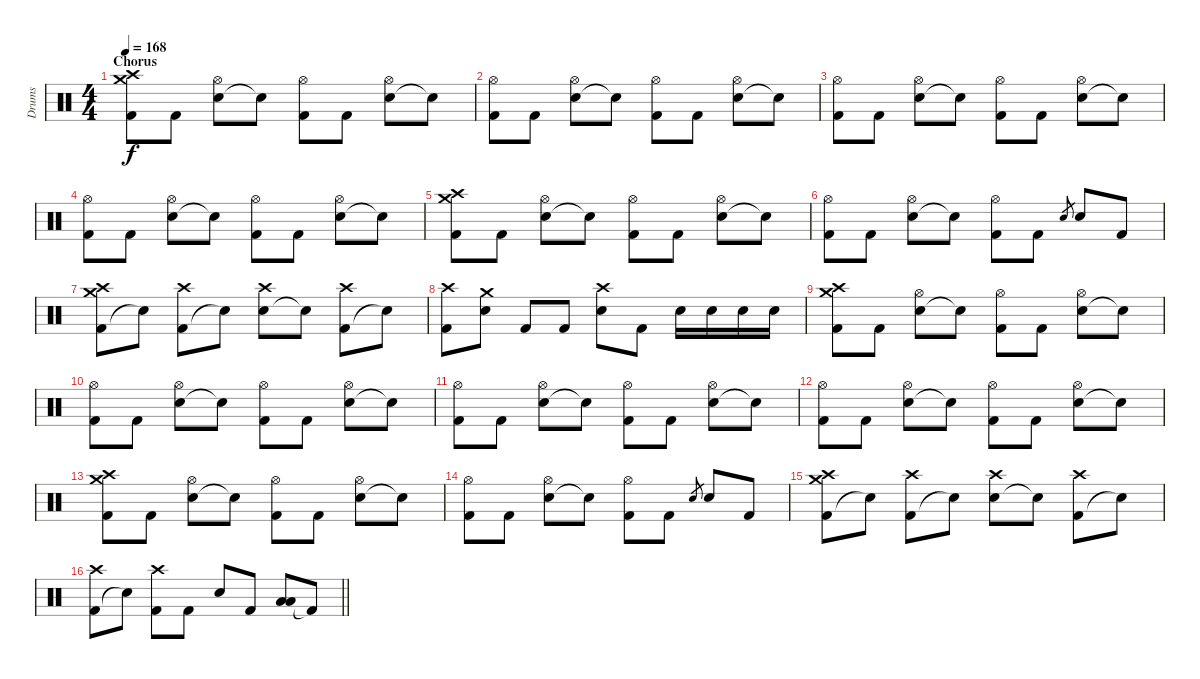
\track ("Drums" "Drums") {instrument percussion}
\staff {score}
\articulation defaults
\ts (4 4)
\section ("" "Chorus")
\tempo 168
\clef neutral
\ks c
("Kick (hit) 2" "Crash medium (hit)" "Crash high (hit)").8{dy f} "Kick (hit) 2".8 ("Electric Snare (hit)" "Hi-Hat (open)").8 "Snare (hit)"{t}.8 ("Kick (hit) 2" "Hi-Hat (open)").8 "Kick (hit) 2".8 ("Electric Snare (hit)" "Hi-Hat (open)").8 "Snare (hit)"{t}.8 |
("Kick (hit) 2" "Hi-Hat (open)").8 "Kick (hit) 2".8 ("Electric Snare (hit)" "Hi-Hat (open)").8 "Snare (hit)"{t}.8 ("Kick (hit) 2" "Hi-Hat (open)").8 "Kick (hit) 2".8 ("Electric Snare (hit)" "Hi-Hat (open)").8 "Snare (hit)"{t}.8 |
("Kick (hit) 2" "Hi-Hat (open)").8 "Kick (hit) 2".8 ("Electric Snare (hit)" "Hi-Hat (open)").8 "Snare (hit)"{t}.8 ("Kick (hit) 2" "Hi-Hat (open)").8 "Kick (hit) 2".8 ("Electric Snare (hit)" "Hi-Hat (open)").8 "Snare (hit)"{t}.8 |
("Kick (hit) 2" "Hi-Hat (open)").8 "Kick (hit) 2".8 ("Electric Snare (hit)" "Hi-Hat (open)").8 "Snare (hit)"{t}.8 ("Kick (hit) 2" "Hi-Hat (open)").8 "Kick (hit) 2".8 ("Electric Snare (hit)" "Hi-Hat (open)").8 "Snare (hit)"{t}.8 |
("Kick (hit) 2" "Crash medium (hit)" "Crash high (hit)").8 "Kick (hit) 2".8 ("Electric Snare (hit)" "Hi-Hat (open)").8 "Snare (hit)"{t}.8 ("Kick (hit) 2" "Hi-Hat (open)").8 "Kick (hit) 2".8 ("Electric Snare (hit)" "Hi-Hat (open)").8 "Snare (hit)"{t}.8 |
("Kick (hit) 2" "Hi-Hat (open)").8 "Kick (hit) 2".8 ("Electric Snare (hit)" "Hi-Hat (open)").8 "Snare (hit)"{t}.8 ("Kick (hit) 2" "Hi-Hat (open)").8 "Kick (hit) 2".8 "Electric Snare (hit)".8{gr} "Electric Snare (hit)".8 "Kick (hit) 2".8 |
("Kick (hit) 2" "Crash medium (hit)" "Crash high (hit)").8 "Snare (hit)"{t}.8 ("Kick (hit) 2" "Crash high (hit)").8 "Snare (hit)"{t}.8 ("Electric Snare (hit)" "Crash high (hit)").8 "Snare (hit)"{t}.8 ("Kick (hit) 2" "Crash high (hit)").8 "Snare (hit)"{t}.8 |
("Kick (hit) 2" "Crash high (hit)").8 ("Electric Snare (hit)" "Crash medium (hit)").8 "Kick (hit) 2".8 "Kick (hit) 2".8 ("Electric Snare (hit)" "Crash high (hit)").8 "Kick (hit) 2".8 "Electric Snare (hit)".16 "Electric Snare (hit)".16 "Electric Snare (hit)".16 "Electric Snare (hit)".16 |
("Kick (hit) 2" "Crash medium (hit)" "Crash high (hit)").8 "Kick (hit) 2".8 ("Electric Snare (hit)" "Hi-Hat (open)").8 "Snare (hit)"{t}.8 ("Kick (hit) 2" "Hi-Hat (open)").8 "Kick (hit) 2".8 ("Electric Snare (hit)" "Hi-Hat (open)").8 "Snare (hit)"{t}.8 |
("Kick (hit) 2" "Hi-Hat (open)").8 "Kick (hit) 2".8 ("Electric Snare (hit)" "Hi-Hat (open)").8 "Snare (hit)"{t}.8 ("Kick (hit) 2" "Hi-Hat (open)").8 "Kick (hit) 2".8 ("Electric Snare (hit)" "Hi-Hat (open)").8 "Snare (hit)"{t}.8 |
("Kick (hit) 2" "Hi-Hat (open)").8 "Kick (hit) 2".8 ("Electric Snare (hit)" "Hi-Hat (open)").8 "Snare (hit)"{t}.8 ("Kick (hit) 2" "Hi-Hat (open)").8 "Kick (hit) 2".8 ("Electric Snare (hit)" "Hi-Hat (open)").8 "Snare (hit)"{t}.8 |
("Kick (hit) 2" "Hi-Hat (open)").8 "Kick (hit) 2".8 ("Electric Snare (hit)" "Hi-Hat (open)").8 "Snare (hit)"{t}.8 ("Kick (hit) 2" "Hi-Hat (open)").8 "Kick (hit) 2".8 ("Electric Snare (hit)" "Hi-Hat (open)").8 "Snare (hit)"{t}.8 |
("Kick (hit) 2" "Crash medium (hit)" "Crash high (hit)").8 "Kick (hit) 2".8 ("Electric Snare (hit)" "Hi-Hat (open)").8 "Snare (hit)"{t}.8 ("Kick (hit) 2" "Hi-Hat (open)").8 "Kick (hit) 2".8 ("Electric Snare (hit)" "Hi-Hat (open)").8 "Snare (hit)"{t}.8 |
("Kick (hit) 2" "Hi-Hat (open)").8 "Kick (hit) 2".8 ("Electric Snare (hit)" "Hi-Hat (open)").8 "Snare (hit)"{t}.8 ("Kick (hit) 2" "Hi-Hat (open)").8 "Kick (hit) 2".8 "Electric Snare (hit)".8{gr} "Electric Snare (hit)".8 "Kick (hit) 2".8 |
("Kick (hit) 2" "Crash medium (hit)" "Crash high (hit)").8 "Snare (hit)"{t}.8 ("Kick (hit) 2" "Crash high (hit)").8 "Snare (hit)"{t}.8 ("Electric Snare (hit)" "Crash high (hit)").8 "Snare (hit)"{t}.8 ("Kick (hit) 2" "Crash high (hit)").8 "Snare (hit)"{t}.8 |
\barLineRight lightlight
("Kick (hit) 2" "Crash high (hit)").8 "Snare (hit)"{t}.8 ("Kick (hit) 2" "Crash high (hit)").8 "Kick (hit) 2".8 "Electric Snare (hit)".8 "Kick (hit) 2".8 ("Low Tom (hit)" "Low Floor Tom (hit)").8 "Kick (hit) 2"{t}.8
